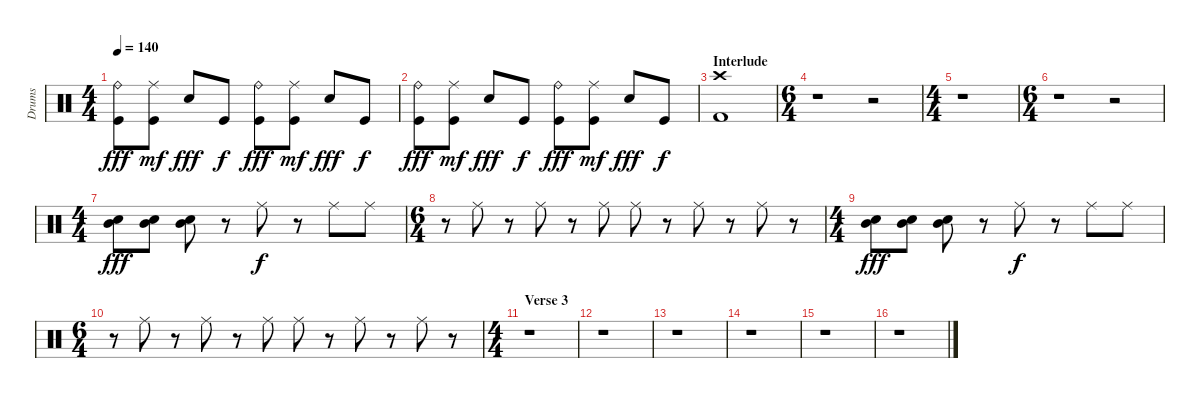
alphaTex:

\track ("Drums" "Drums") {instrument percussion}
\staff {score}
\articulation defaults
\ts (4 4)
\tempo 140
\clef neutral
\ks c
("Ride (bell)" "Kick (hit)").8{dy fff} ("Ride (middle)" "Kick (hit)").8{dy mf} "Electric Snare (hit)".8{dy fff} "Kick (hit)".8{dy f} ("Ride (bell)" "Kick (hit)").8{dy fff} ("Ride (middle)" "Kick (hit)").8{dy mf} "Electric Snare (hit)".8{dy fff} "Kick (hit)".8{dy f} |
("Ride (bell)" "Kick (hit)").8{dy fff} ("Ride (middle)" "Kick (hit)").8{dy mf} "Electric Snare (hit)".8{dy fff} "Kick (hit)".8{dy f} ("Ride (bell)" "Kick (hit)").8{dy fff} ("Ride (middle)" "Kick (hit)").8{dy mf} "Electric Snare (hit)".8{dy fff} "Kick (hit)".8{dy f} |
\section ("" "Interlude")
("Crash high (hit)" "Kick (hit) 2").1 |
\ts (6 4)
r.1 r.2 |
\ts (4 4)
r.1 |
\ts (6 4)
r.1 r.2 |
\ts (4 4)
("Electric Snare (hit)" "Mid Tom (hit)").8{dy fff} ("Electric Snare (hit)" "Mid Tom (hit)").8 ("Electric Snare (hit)" "Mid Tom (hit)").8 r.8 "Ride (middle)".8{dy f} r.8 "Ride (middle)".8 "Ride (middle)".8 |
\ts (6 4)
r.8 "Ride (middle)".8 r.8 "Ride (middle)".8 r.8 "Ride (middle)".8 "Ride (middle)".8 r.8 "Ride (middle)".8 r.8 "Ride (middle)".8 r.8 |
\ts (4 4)
("Electric Snare (hit)" "Mid Tom (hit)").8{dy fff} ("Electric Snare (hit)" "Mid Tom (hit)").8 ("Electric Snare (hit)" "Mid Tom (hit)").8 r.8 "Ride (middle)".8{dy f} r.8 "Ride (middle)".8 "Ride (middle)".8 |
\ts (6 4)
r.8 "Ride (middle)".8 r.8 "Ride (middle)".8 r.8 "Ride (middle)".8 "Ride (middle)".8 r.8 "Ride (middle)".8 r.8 "Ride (middle)".8 r.8 |
\ts (4 4)
\section ("" "Verse 3")
r.1 |
r.1 |
r.1 |
r.1 |
r.1 |
r.1
